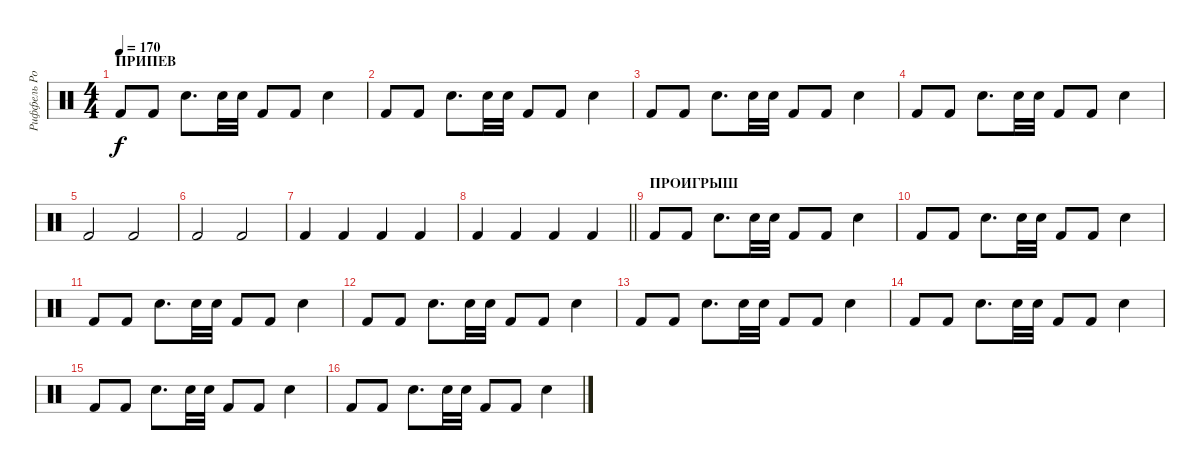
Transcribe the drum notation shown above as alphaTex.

\track ("Риффель Роман (главные)" "Риффель Ро") {instrument percussion}
\staff {score}
\articulation defaults
\ts (4 4)
\section ("" "ПРИПЕВ")
\tempo 170
\clef neutral
\ks c "Kick (hit) 2".8{dy f} "Kick (hit) 2".8 "Electric Snare (hit)".8{d} "Electric Snare (hit)".32 "Electric Snare (hit)".32 "Kick (hit) 2".8 "Kick (hit) 2".8 "Electric Snare (hit)".4
|
"Kick (hit) 2".8 "Kick (hit) 2".8 "Electric Snare (hit)".8{d} "Electric Snare (hit)".32 "Electric Snare (hit)".32 "Kick (hit) 2".8 "Kick (hit) 2".8 "Electric Snare (hit)".4 |
"Kick (hit) 2".8 "Kick (hit) 2".8 "Electric Snare (hit)".8{d} "Electric Snare (hit)".32 "Electric Snare (hit)".32 "Kick (hit) 2".8 "Kick (hit) 2".8 "Electric Snare (hit)".4 |
"Kick (hit) 2".8 "Kick (hit) 2".8 "Electric Snare (hit)".8{d} "Electric Snare (hit)".32 "Electric Snare (hit)".32 "Kick (hit) 2".8 "Kick (hit) 2".8 "Electric Snare (hit)".4 |
"Kick (hit) 2".2 "Kick (hit) 2".2 |
"Kick (hit) 2".2 "Kick (hit) 2".2 |
"Kick (hit) 2".4 "Kick (hit) 2".4 "Kick (hit) 2".4 "Kick (hit) 2".4 |
\barLineRight lightlight "Kick (hit) 2".4 "Kick (hit) 2".4 "Kick (hit) 2".4 "Kick (hit) 2".4
|
\section ("" "ПРОИГРЫШ")
"Kick (hit) 2".8 "Kick (hit) 2".8 "Electric Snare (hit)".8{d} "Electric Snare (hit)".32 "Electric Snare (hit)".32 "Kick (hit) 2".8 "Kick (hit) 2".8 "Electric Snare (hit)".4 |
"Kick (hit) 2".8 "Kick (hit) 2".8 "Electric Snare (hit)".8{d} "Electric Snare (hit)".32 "Electric Snare (hit)".32 "Kick (hit) 2".8 "Kick (hit) 2".8 "Electric Snare (hit)".4 |
"Kick (hit) 2".8 "Kick (hit) 2".8 "Electric Snare (hit)".8{d} "Electric Snare (hit)".32 "Electric Snare (hit)".32 "Kick (hit) 2".8 "Kick (hit) 2".8 "Electric Snare (hit)".4 |
"Kick (hit) 2".8 "Kick (hit) 2".8 "Electric Snare (hit)".8{d} "Electric Snare (hit)".32 "Electric Snare (hit)".32 "Kick (hit) 2".8 "Kick (hit) 2".8 "Electric Snare (hit)".4 |
"Kick (hit) 2".8 "Kick (hit) 2".8 "Electric Snare (hit)".8{d} "Electric Snare (hit)".32 "Electric Snare (hit)".32 "Kick (hit) 2".8 "Kick (hit) 2".8 "Electric Snare (hit)".4 |
"Kick (hit) 2".8 "Kick (hit) 2".8 "Electric Snare (hit)".8{d} "Electric Snare (hit)".32 "Electric Snare (hit)".32 "Kick (hit) 2".8 "Kick (hit) 2".8 "Electric Snare (hit)".4 |
"Kick (hit) 2".8 "Kick (hit) 2".8 "Electric Snare (hit)".8{d} "Electric Snare (hit)".32 "Electric Snare (hit)".32 "Kick (hit) 2".8 "Kick (hit) 2".8 "Electric Snare (hit)".4 |
"Kick (hit) 2".8 "Kick (hit) 2".8 "Electric Snare (hit)".8{d} "Electric Snare (hit)".32 "Electric Snare (hit)".32 "Kick (hit) 2".8 "Kick (hit) 2".8 "Electric Snare (hit)".4
